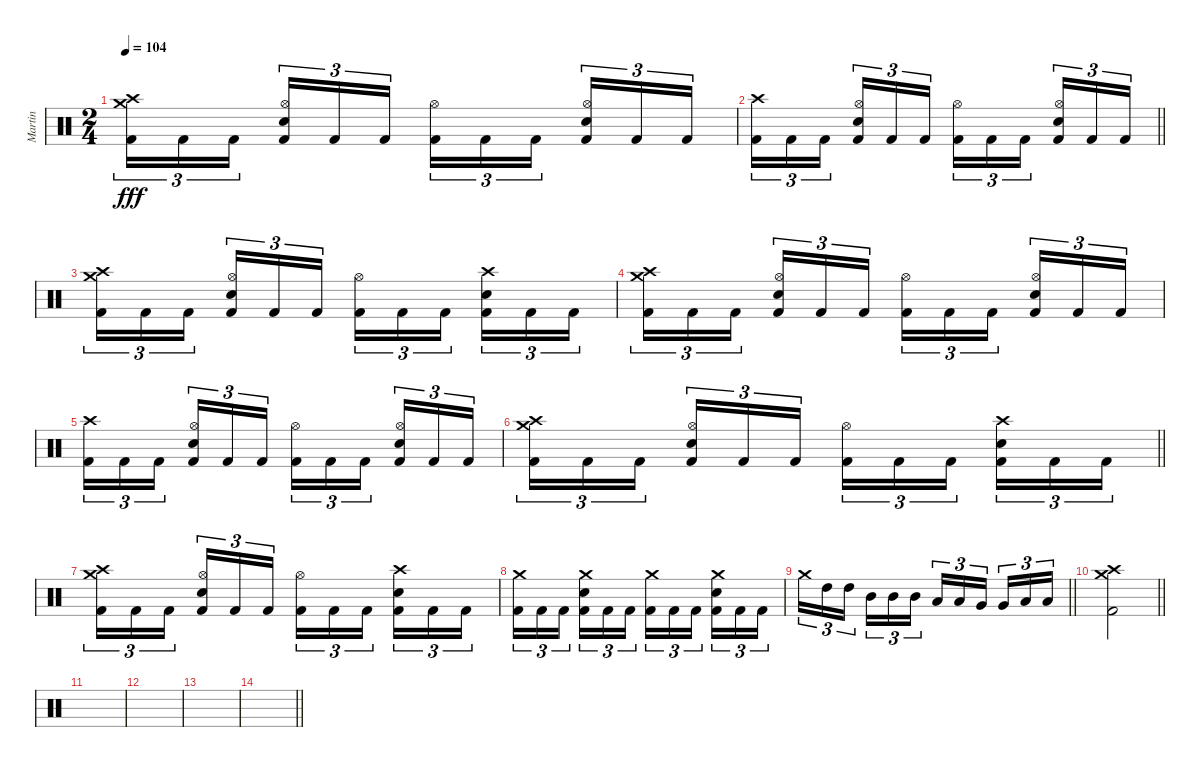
\track ("Martin" "Martin") {instrument percussion}
\staff {score}
\articulation defaults
\ts (2 4)
\tempo 104
\clef neutral
\ks c
("Crash high (hit)" "Crash medium (hit)" "Kick (hit) 2").16{tu (3 2) dy fff} "Kick (hit) 2".16{tu (3 2)} "Kick (hit) 2".16{tu (3 2) beam splitsecondary} ("Hi-Hat (open)" "Electric Snare (hit)" "Kick (hit) 2").16{tu (3 2)} "Kick (hit) 2".16{tu (3 2)} "Kick (hit) 2".16{tu (3 2)} ("Hi-Hat (open)" "Kick (hit) 2").16{tu (3 2)} "Kick (hit) 2".16{tu (3 2)} "Kick (hit) 2".16{tu (3 2) beam splitsecondary} ("Hi-Hat (open)" "Electric Snare (hit)" "Kick (hit) 2").16{tu (3 2)} "Kick (hit) 2".16{tu (3 2)} "Kick (hit) 2".16{tu (3 2)} |
\barLineRight lightlight
("Crash high (hit)" "Kick (hit) 2").16{tu (3 2)} "Kick (hit) 2".16{tu (3 2)} "Kick (hit) 2".16{tu (3 2) beam splitsecondary} ("Hi-Hat (open)" "Electric Snare (hit)" "Kick (hit) 2").16{tu (3 2)} "Kick (hit) 2".16{tu (3 2)} "Kick (hit) 2".16{tu (3 2)} ("Hi-Hat (open)" "Kick (hit) 2").16{tu (3 2)} "Kick (hit) 2".16{tu (3 2)} "Kick (hit) 2".16{tu (3 2) beam splitsecondary} ("Hi-Hat (open)" "Electric Snare (hit)" "Kick (hit) 2").16{tu (3 2)} "Kick (hit) 2".16{tu (3 2)} "Kick (hit) 2".16{tu (3 2)} |
("Crash high (hit)" "Crash medium (hit)" "Kick (hit) 2").16{tu (3 2)} "Kick (hit) 2".16{tu (3 2)} "Kick (hit) 2".16{tu (3 2) beam splitsecondary} ("Hi-Hat (open)" "Electric Snare (hit)" "Kick (hit) 2").16{tu (3 2)} "Kick (hit) 2".16{tu (3 2)} "Kick (hit) 2".16{tu (3 2)} ("Hi-Hat (open)" "Kick (hit) 2").16{tu (3 2)} "Kick (hit) 2".16{tu (3 2)} "Kick (hit) 2".16{tu (3 2) beam splitsecondary} ("Crash high (hit)" "Electric Snare (hit)" "Kick (hit) 2").16{tu (3 2)} "Kick (hit) 2".16{tu (3 2)} "Kick (hit) 2".16{tu (3 2)} |
("Crash high (hit)" "Crash medium (hit)" "Kick (hit) 2").16{tu (3 2)} "Kick (hit) 2".16{tu (3 2)} "Kick (hit) 2".16{tu (3 2) beam splitsecondary} ("Hi-Hat (open)" "Electric Snare (hit)" "Kick (hit) 2").16{tu (3 2)} "Kick (hit) 2".16{tu (3 2)} "Kick (hit) 2".16{tu (3 2)} ("Hi-Hat (open)" "Kick (hit) 2").16{tu (3 2)} "Kick (hit) 2".16{tu (3 2)} "Kick (hit) 2".16{tu (3 2) beam splitsecondary} ("Hi-Hat (open)" "Electric Snare (hit)" "Kick (hit) 2").16{tu (3 2)} "Kick (hit) 2".16{tu (3 2)} "Kick (hit) 2".16{tu (3 2)} |
("Crash high (hit)" "Kick (hit) 2").16{tu (3 2)} "Kick (hit) 2".16{tu (3 2)} "Kick (hit) 2".16{tu (3 2) beam splitsecondary} ("Hi-Hat (open)" "Electric Snare (hit)" "Kick (hit) 2").16{tu (3 2)} "Kick (hit) 2".16{tu (3 2)} "Kick (hit) 2".16{tu (3 2)} ("Hi-Hat (open)" "Kick (hit) 2").16{tu (3 2)} "Kick (hit) 2".16{tu (3 2)} "Kick (hit) 2".16{tu (3 2) beam splitsecondary} ("Hi-Hat (open)" "Electric Snare (hit)" "Kick (hit) 2").16{tu (3 2)} "Kick (hit) 2".16{tu (3 2)} "Kick (hit) 2".16{tu (3 2)} |
\barLineRight lightlight
("Crash high (hit)" "Crash medium (hit)" "Kick (hit) 2").16{tu (3 2)} "Kick (hit) 2".16{tu (3 2)} "Kick (hit) 2".16{tu (3 2) beam splitsecondary} ("Hi-Hat (open)" "Electric Snare (hit)" "Kick (hit) 2").16{tu (3 2)} "Kick (hit) 2".16{tu (3 2)} "Kick (hit) 2".16{tu (3 2)} ("Hi-Hat (open)" "Kick (hit) 2").16{tu (3 2)} "Kick (hit) 2".16{tu (3 2)} "Kick (hit) 2".16{tu (3 2) beam splitsecondary} ("Crash high (hit)" "Electric Snare (hit)" "Kick (hit) 2").16{tu (3 2)} "Kick (hit) 2".16{tu (3 2)} "Kick (hit) 2".16{tu (3 2)} |
("Crash high (hit)" "Crash medium (hit)" "Kick (hit) 2").16{tu (3 2)} "Kick (hit) 2".16{tu (3 2)} "Kick (hit) 2".16{tu (3 2) beam splitsecondary} ("Hi-Hat (open)" "Electric Snare (hit)" "Kick (hit) 2").16{tu (3 2)} "Kick (hit) 2".16{tu (3 2)} "Kick (hit) 2".16{tu (3 2)} ("Hi-Hat (open)" "Kick (hit) 2").16{tu (3 2)} "Kick (hit) 2".16{tu (3 2)} "Kick (hit) 2".16{tu (3 2) beam splitsecondary} ("Crash high (hit)" "Electric Snare (hit)" "Kick (hit) 2").16{tu (3 2)} "Kick (hit) 2".16{tu (3 2)} "Kick (hit) 2".16{tu (3 2)} |
("Crash medium (hit)" "Kick (hit) 2").16{tu (3 2)} "Kick (hit) 2".16{tu (3 2)} "Kick (hit) 2".16{tu (3 2) beam splitsecondary} ("Crash medium (hit)" "Electric Snare (hit)" "Kick (hit) 2").16{tu (3 2)} "Kick (hit) 2".16{tu (3 2)} "Kick (hit) 2".16{tu (3 2)} ("Crash medium (hit)" "Kick (hit) 2").16{tu (3 2)} "Kick (hit) 2".16{tu (3 2)} "Kick (hit) 2".16{tu (3 2) beam splitsecondary} ("Crash medium (hit)" "Electric Snare (hit)" "Kick (hit) 2").16{tu (3 2)} "Kick (hit) 2".16{tu (3 2)} "Kick (hit) 2".16{tu (3 2)} |
\barLineRight lightlight "Crash medium (hit)".16{tu (3 2)} "High Tom (hit)".16{tu (3 2)} "High Tom (hit)".16{tu (3 2) beam splitsecondary} "Mid Tom (hit)".16{tu (3 2)} "Mid Tom (hit)".16{tu (3 2)} "Mid Tom (hit)".16{tu (3 2)} "Low Tom (hit)".16{tu (3 2)} "Low Tom (hit)".16{tu (3 2)} "Very Low Tom (hit)".16{tu (3 2) beam splitsecondary} "Very Low Tom (hit)".16{tu (3 2)} "Low Floor Tom (hit)".16{tu (3 2)} "Low Floor Tom (hit)".16{tu (3 2)}
|
\barLineRight lightlight
("Crash high (hit)" "Crash medium (hit)" "Kick (hit) 2").2 |
|
|
|
\barLineRight lightlight
